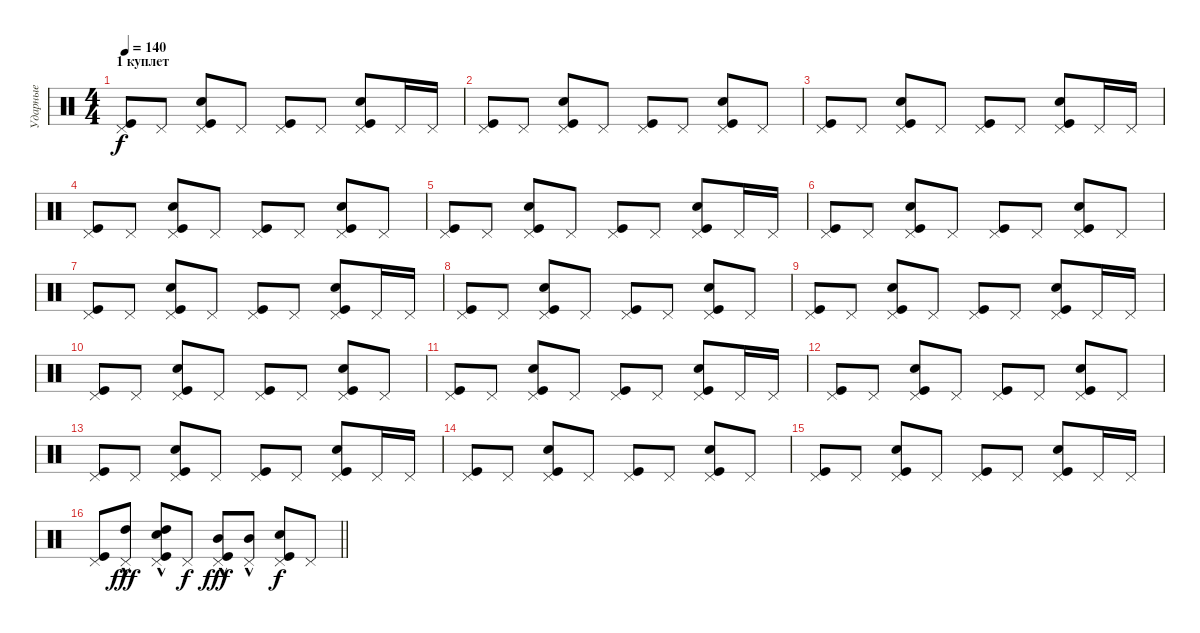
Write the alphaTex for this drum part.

\track ("Ударные" "Ударные") {instrument percussion}
\staff {score}
\articulation defaults
\ts (4 4)
\section ("" "1 куплет")
\tempo 140
\clef neutral
\ks c
("Pedal Hi-Hat (hit)" "Kick (hit)").8{dy f} "Pedal Hi-Hat (hit)".8 ("Pedal Hi-Hat (hit)" "Kick (hit)" "Snare (hit) 2").8 "Pedal Hi-Hat (hit)".8 ("Pedal Hi-Hat (hit)" "Kick (hit)").8 "Pedal Hi-Hat (hit)".8 ("Pedal Hi-Hat (hit)" "Kick (hit)" "Snare (hit) 2").8 "Pedal Hi-Hat (hit)".16 "Pedal Hi-Hat (hit)".16 |
("Pedal Hi-Hat (hit)" "Kick (hit)").8 "Pedal Hi-Hat (hit)".8 ("Pedal Hi-Hat (hit)" "Kick (hit)" "Snare (hit) 2").8 "Pedal Hi-Hat (hit)".8 ("Pedal Hi-Hat (hit)" "Kick (hit)").8 "Pedal Hi-Hat (hit)".8 ("Pedal Hi-Hat (hit)" "Kick (hit)" "Snare (hit) 2").8 "Pedal Hi-Hat (hit)".8 |
("Pedal Hi-Hat (hit)" "Kick (hit)").8 "Pedal Hi-Hat (hit)".8 ("Pedal Hi-Hat (hit)" "Kick (hit)" "Snare (hit) 2").8 "Pedal Hi-Hat (hit)".8 ("Pedal Hi-Hat (hit)" "Kick (hit)").8 "Pedal Hi-Hat (hit)".8 ("Pedal Hi-Hat (hit)" "Kick (hit)" "Snare (hit) 2").8 "Pedal Hi-Hat (hit)".16 "Pedal Hi-Hat (hit)".16 |
("Pedal Hi-Hat (hit)" "Kick (hit)").8 "Pedal Hi-Hat (hit)".8 ("Pedal Hi-Hat (hit)" "Kick (hit)" "Snare (hit) 2").8 "Pedal Hi-Hat (hit)".8 ("Pedal Hi-Hat (hit)" "Kick (hit)").8 "Pedal Hi-Hat (hit)".8 ("Pedal Hi-Hat (hit)" "Kick (hit)" "Snare (hit) 2").8 "Pedal Hi-Hat (hit)".8 |
("Pedal Hi-Hat (hit)" "Kick (hit)").8 "Pedal Hi-Hat (hit)".8 ("Pedal Hi-Hat (hit)" "Kick (hit)" "Snare (hit) 2").8 "Pedal Hi-Hat (hit)".8 ("Pedal Hi-Hat (hit)" "Kick (hit)").8 "Pedal Hi-Hat (hit)".8 ("Pedal Hi-Hat (hit)" "Kick (hit)" "Snare (hit) 2").8 "Pedal Hi-Hat (hit)".16 "Pedal Hi-Hat (hit)".16 |
("Pedal Hi-Hat (hit)" "Kick (hit)").8 "Pedal Hi-Hat (hit)".8 ("Pedal Hi-Hat (hit)" "Kick (hit)" "Snare (hit) 2").8 "Pedal Hi-Hat (hit)".8 ("Pedal Hi-Hat (hit)" "Kick (hit)").8 "Pedal Hi-Hat (hit)".8 ("Pedal Hi-Hat (hit)" "Kick (hit)" "Snare (hit) 2").8 "Pedal Hi-Hat (hit)".8 |
("Pedal Hi-Hat (hit)" "Kick (hit)").8 "Pedal Hi-Hat (hit)".8 ("Pedal Hi-Hat (hit)" "Kick (hit)" "Snare (hit) 2").8 "Pedal Hi-Hat (hit)".8 ("Pedal Hi-Hat (hit)" "Kick (hit)").8 "Pedal Hi-Hat (hit)".8 ("Pedal Hi-Hat (hit)" "Kick (hit)" "Snare (hit) 2").8 "Pedal Hi-Hat (hit)".16 "Pedal Hi-Hat (hit)".16 |
("Pedal Hi-Hat (hit)" "Kick (hit)").8 "Pedal Hi-Hat (hit)".8 ("Pedal Hi-Hat (hit)" "Kick (hit)" "Snare (hit) 2").8 "Pedal Hi-Hat (hit)".8 ("Pedal Hi-Hat (hit)" "Kick (hit)").8 "Pedal Hi-Hat (hit)".8 ("Pedal Hi-Hat (hit)" "Kick (hit)" "Snare (hit) 2").8 "Pedal Hi-Hat (hit)".8 |
("Pedal Hi-Hat (hit)" "Kick (hit)").8 "Pedal Hi-Hat (hit)".8 ("Pedal Hi-Hat (hit)" "Kick (hit)" "Snare (hit) 2").8 "Pedal Hi-Hat (hit)".8 ("Pedal Hi-Hat (hit)" "Kick (hit)").8 "Pedal Hi-Hat (hit)".8 ("Pedal Hi-Hat (hit)" "Kick (hit)" "Snare (hit) 2").8 "Pedal Hi-Hat (hit)".16 "Pedal Hi-Hat (hit)".16 |
("Pedal Hi-Hat (hit)" "Kick (hit)").8 "Pedal Hi-Hat (hit)".8 ("Pedal Hi-Hat (hit)" "Kick (hit)" "Snare (hit) 2").8 "Pedal Hi-Hat (hit)".8 ("Pedal Hi-Hat (hit)" "Kick (hit)").8 "Pedal Hi-Hat (hit)".8 ("Pedal Hi-Hat (hit)" "Kick (hit)" "Snare (hit) 2").8 "Pedal Hi-Hat (hit)".8 |
("Pedal Hi-Hat (hit)" "Kick (hit)").8 "Pedal Hi-Hat (hit)".8 ("Pedal Hi-Hat (hit)" "Kick (hit)" "Snare (hit) 2").8 "Pedal Hi-Hat (hit)".8 ("Pedal Hi-Hat (hit)" "Kick (hit)").8 "Pedal Hi-Hat (hit)".8 ("Pedal Hi-Hat (hit)" "Kick (hit)" "Snare (hit) 2").8 "Pedal Hi-Hat (hit)".16 "Pedal Hi-Hat (hit)".16 |
("Pedal Hi-Hat (hit)" "Kick (hit)").8 "Pedal Hi-Hat (hit)".8 ("Pedal Hi-Hat (hit)" "Kick (hit)" "Snare (hit) 2").8 "Pedal Hi-Hat (hit)".8 ("Pedal Hi-Hat (hit)" "Kick (hit)").8 "Pedal Hi-Hat (hit)".8 ("Pedal Hi-Hat (hit)" "Kick (hit)" "Snare (hit) 2").8 "Pedal Hi-Hat (hit)".8 |
("Pedal Hi-Hat (hit)" "Kick (hit)").8 "Pedal Hi-Hat (hit)".8 ("Pedal Hi-Hat (hit)" "Kick (hit)" "Snare (hit) 2").8 "Pedal Hi-Hat (hit)".8 ("Pedal Hi-Hat (hit)" "Kick (hit)").8 "Pedal Hi-Hat (hit)".8 ("Pedal Hi-Hat (hit)" "Kick (hit)" "Snare (hit) 2").8 "Pedal Hi-Hat (hit)".16 "Pedal Hi-Hat (hit)".16 |
("Pedal Hi-Hat (hit)" "Kick (hit)").8 "Pedal Hi-Hat (hit)".8 ("Pedal Hi-Hat (hit)" "Kick (hit)" "Snare (hit) 2").8 "Pedal Hi-Hat (hit)".8 ("Pedal Hi-Hat (hit)" "Kick (hit)").8 "Pedal Hi-Hat (hit)".8 ("Pedal Hi-Hat (hit)" "Kick (hit)" "Snare (hit) 2").8 "Pedal Hi-Hat (hit)".8 |
("Pedal Hi-Hat (hit)" "Kick (hit)").8 "Pedal Hi-Hat (hit)".8 ("Pedal Hi-Hat (hit)" "Kick (hit)" "Snare (hit) 2").8 "Pedal Hi-Hat (hit)".8 ("Pedal Hi-Hat (hit)" "Kick (hit)").8 "Pedal Hi-Hat (hit)".8 ("Pedal Hi-Hat (hit)" "Kick (hit)" "Snare (hit) 2").8 "Pedal Hi-Hat (hit)".16 "Pedal Hi-Hat (hit)".16 |
\barLineRight lightlight
("Pedal Hi-Hat (hit)" "Kick (hit)").8 ("Pedal Hi-Hat (hit)" "High Tom (hit)"{hac}).8{dy fff} ("Pedal Hi-Hat (hit)" "Kick (hit)" "Snare (hit) 2" "High Tom (hit)"{hac}).8 "Pedal Hi-Hat (hit)".8{dy f} ("Pedal Hi-Hat (hit)" "Kick (hit)" "Mid Tom (hit)"{hac}).8{dy fff} ("Pedal Hi-Hat (hit)" "Mid Tom (hit)"{hac}).8 ("Pedal Hi-Hat (hit)" "Kick (hit)" "Snare (hit) 2").8{dy f} "Pedal Hi-Hat (hit)".8
